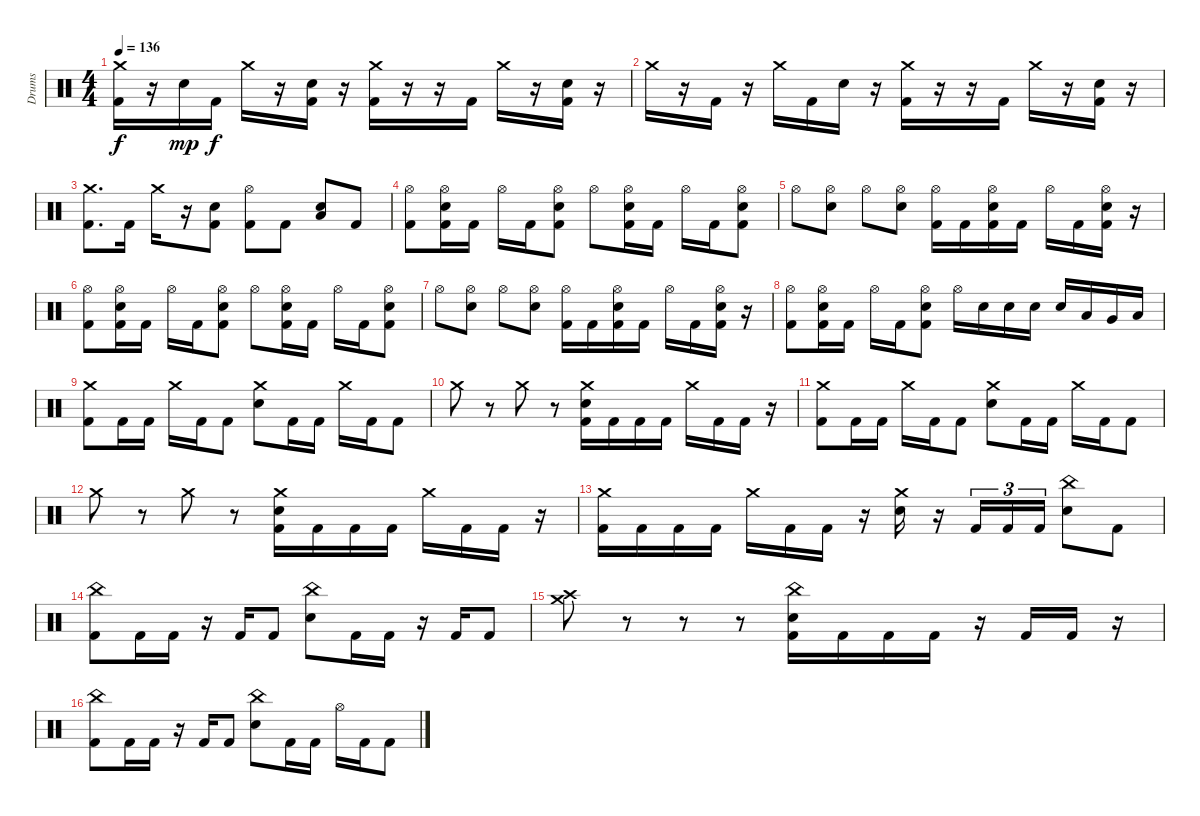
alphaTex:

\track ("Drums" "Drums") {instrument percussion}
\staff {score}
\articulation defaults
\ts (4 4)
\tempo 136
\clef neutral
\ks c
("Crash medium (hit)" "Kick (hit) 2").16{dy f} r.16 "Snare (hit) 2".16{dy mp} "Kick (hit) 2".16{dy f} "Crash medium (hit)".16 r.16 ("Electric Snare (hit)" "Kick (hit) 2").16 r.16 ("Crash medium (hit)" "Kick (hit) 2").16 r.16 r.16 "Kick (hit) 2".16 "Crash medium (hit)".16 r.16 ("Electric Snare (hit)" "Kick (hit) 2").16 r.16 |
"Crash medium (hit)".16 r.16 "Kick (hit) 2".16 r.16 "Crash medium (hit)".16 "Kick (hit) 2".16 "Electric Snare (hit)".16 r.16 ("Crash medium (hit)" "Kick (hit) 2").16 r.16 r.16 "Kick (hit) 2".16 "Crash medium (hit)".16 r.16 ("Electric Snare (hit)" "Kick (hit) 2").16 r.16 |
("Crash medium (hit)" "Kick (hit) 2").8{d} "Kick (hit) 2".16 "Crash medium (hit)".16 r.16 ("Electric Snare (hit)" "Kick (hit) 2").8 ("Hi-Hat (open)" "Kick (hit) 2").8 "Kick (hit) 2".8 ("Low Floor Tom (hit)" "Electric Snare (hit)").8 "Kick (hit) 2".8 |
("Hi-Hat (open)" "Kick (hit) 2").8 ("Hi-Hat (open)" "Electric Snare (hit)" "Kick (hit) 2").16 "Kick (hit) 2".16 "Hi-Hat (open)".16 "Kick (hit) 2".16 ("Hi-Hat (open)" "Electric Snare (hit)" "Kick (hit) 2").8 "Hi-Hat (open)".8 ("Hi-Hat (open)" "Electric Snare (hit)" "Kick (hit) 2").16 "Kick (hit) 2".16 "Hi-Hat (open)".16 "Kick (hit) 2".16 ("Hi-Hat (open)" "Electric Snare (hit)" "Kick (hit) 2").8 |
"Hi-Hat (open)".8 ("Hi-Hat (open)" "Electric Snare (hit)").8 "Hi-Hat (open)".8 ("Hi-Hat (open)" "Electric Snare (hit)").8 ("Hi-Hat (open)" "Kick (hit) 2").16 "Kick (hit) 2".16 ("Hi-Hat (open)" "Electric Snare (hit)" "Kick (hit) 2").16 "Kick (hit) 2".16 "Hi-Hat (open)".16 "Kick (hit) 2".16 ("Hi-Hat (open)" "Electric Snare (hit)" "Kick (hit) 2").16 r.16 |
("Hi-Hat (open)" "Kick (hit) 2").8 ("Hi-Hat (open)" "Electric Snare (hit)" "Kick (hit) 2").16 "Kick (hit) 2".16 "Hi-Hat (open)".16 "Kick (hit) 2".16 ("Hi-Hat (open)" "Electric Snare (hit)" "Kick (hit) 2").8 "Hi-Hat (open)".8 ("Hi-Hat (open)" "Electric Snare (hit)" "Kick (hit) 2").16 "Kick (hit) 2".16 "Hi-Hat (open)".16 "Kick (hit) 2".16 ("Hi-Hat (open)" "Electric Snare (hit)" "Kick (hit) 2").8 |
"Hi-Hat (open)".8 ("Hi-Hat (open)" "Electric Snare (hit)").8 "Hi-Hat (open)".8 ("Hi-Hat (open)" "Electric Snare (hit)").8 ("Hi-Hat (open)" "Kick (hit) 2").16 "Kick (hit) 2".16 ("Hi-Hat (open)" "Electric Snare (hit)" "Kick (hit) 2").16 "Kick (hit) 2".16 "Hi-Hat (open)".16 "Kick (hit) 2".16 ("Hi-Hat (open)" "Electric Snare (hit)" "Kick (hit) 2").16 r.16 |
("Hi-Hat (open)" "Kick (hit) 2").8 ("Hi-Hat (open)" "Electric Snare (hit)" "Kick (hit) 2").16 "Kick (hit) 2".16 "Hi-Hat (open)".16 "Kick (hit) 2".16 ("Hi-Hat (open)" "Electric Snare (hit)" "Kick (hit) 2").8 "Hi-Hat (open)".16 "Electric Snare (hit)".16 "Electric Snare (hit)".16 "Electric Snare (hit)".16 "Electric Snare (hit)".16 "Low Tom (hit)".16 "Very Low Tom (hit)".16 "Low Floor Tom (hit)".16 |
("Crash medium (hit)" "Kick (hit) 2").8 "Kick (hit) 2".16 "Kick (hit) 2".16 "Crash medium (hit)".16 "Kick (hit) 2".16 "Kick (hit) 2".8 ("Crash medium (hit)" "Electric Snare (hit)").8 "Kick (hit) 2".16 "Kick (hit) 2".16 "Crash medium (hit)".16 "Kick (hit) 2".16 "Kick (hit) 2".8 |
"Crash medium (hit)".8 r.8 "Crash medium (hit)".8 r.8 ("Crash medium (hit)" "Electric Snare (hit)" "Kick (hit) 2").16 "Kick (hit) 2".16 "Kick (hit) 2".16 "Kick (hit) 2".16 "Crash medium (hit)".16 "Kick (hit) 2".16 "Kick (hit) 2".16 r.16 |
("Crash medium (hit)" "Kick (hit) 2").8 "Kick (hit) 2".16 "Kick (hit) 2".16 "Crash medium (hit)".16 "Kick (hit) 2".16 "Kick (hit) 2".8 ("Crash medium (hit)" "Electric Snare (hit)").8 "Kick (hit) 2".16 "Kick (hit) 2".16 "Crash medium (hit)".16 "Kick (hit) 2".16 "Kick (hit) 2".8 |
"Crash medium (hit)".8 r.8 "Crash medium (hit)".8 r.8 ("Crash medium (hit)" "Electric Snare (hit)" "Kick (hit) 2").16 "Kick (hit) 2".16 "Kick (hit) 2".16 "Kick (hit) 2".16 "Crash medium (hit)".16 "Kick (hit) 2".16 "Kick (hit) 2".16 r.16 |
("Crash medium (hit)" "Kick (hit) 2").16 "Kick (hit) 2".16 "Kick (hit) 2".16 "Kick (hit) 2".16 "Crash medium (hit)".16 "Kick (hit) 2".16 "Kick (hit) 2".16 r.16 ("Crash medium (hit)" "Electric Snare (hit)").16 r.16 "Kick (hit) 2".16{tu (3 2)} "Kick (hit) 2".16{tu (3 2)} "Kick (hit) 2".16{tu (3 2)} ("China (hit)" "Electric Snare (hit)").8 "Kick (hit) 2".8 |
("China (hit)" "Kick (hit) 2").8 "Kick (hit) 2".16 "Kick (hit) 2".16 r.16 "Kick (hit) 2".16 "Kick (hit) 2".8 ("China (hit)" "Electric Snare (hit)").8 "Kick (hit) 2".16 "Kick (hit) 2".16 r.16 "Kick (hit) 2".16 "Kick (hit) 2".8 |
("Crash medium (hit)" "Crash high (hit)").8 r.8 r.8 r.8 ("China (hit)" "Electric Snare (hit)" "Kick (hit) 2").16 "Kick (hit) 2".16 "Kick (hit) 2".16 "Kick (hit) 2".16 r.16 "Kick (hit) 2".16 "Kick (hit) 2".16 r.16 |
("China (hit)" "Kick (hit) 2").8 "Kick (hit) 2".16 "Kick (hit) 2".16 r.16 "Kick (hit) 2".16 "Kick (hit) 2".8 ("China (hit)" "Electric Snare (hit)").8 "Kick (hit) 2".16 "Kick (hit) 2".16 "Hi-Hat (open)".16 "Kick (hit) 2".16 "Kick (hit) 2".8
